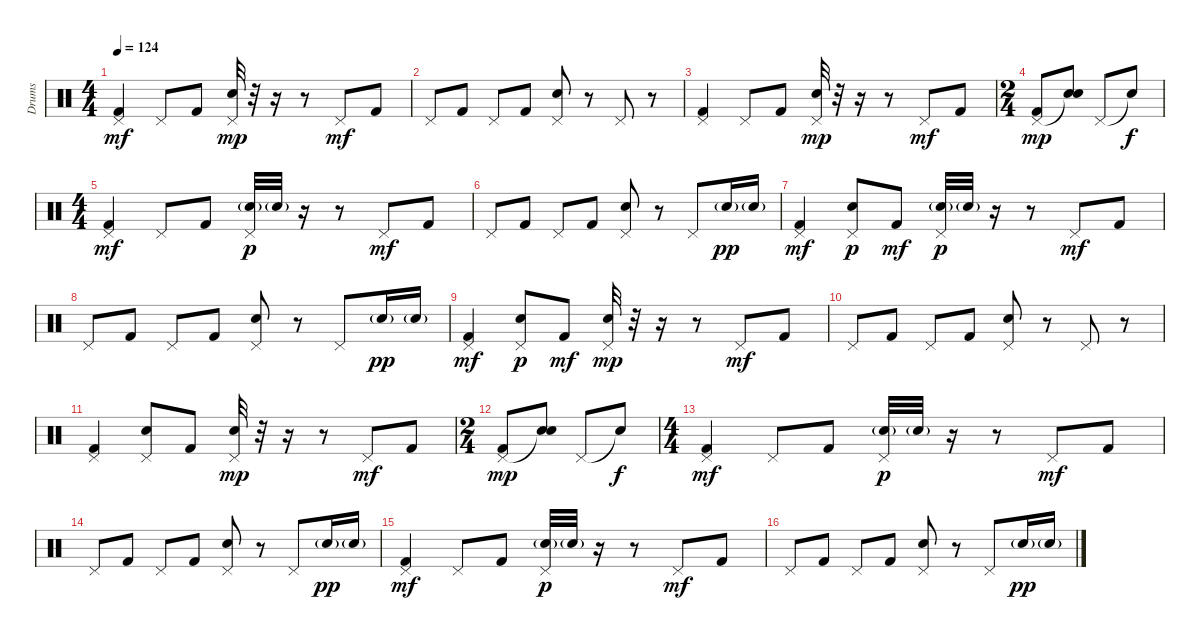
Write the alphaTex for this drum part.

\track ("Drums" "Drums") {instrument percussion}
\staff {score}
\articulation defaults
\ts (4 4)
\tempo 124
\clef neutral
\ks c
("Pedal Hi-Hat (hit)" "Kick (hit) 2").4{dy mf} "Pedal Hi-Hat (hit)".8 "Kick (hit) 2".8 ("Pedal Hi-Hat (hit)" "Electric Snare (hit)").32{dy mp} r.32 r.16 r.8 "Pedal Hi-Hat (hit)".8{dy mf} "Kick (hit) 2".8 |
"Pedal Hi-Hat (hit)".8 "Kick (hit) 2".8 "Pedal Hi-Hat (hit)".8 "Kick (hit) 2".8 ("Pedal Hi-Hat (hit)" "Electric Snare (hit)").8 r.8 "Pedal Hi-Hat (hit)".8 r.8 |
("Pedal Hi-Hat (hit)" "Kick (hit) 2").4 "Pedal Hi-Hat (hit)".8 "Kick (hit) 2".8 ("Pedal Hi-Hat (hit)" "Electric Snare (hit)").32{dy mp} r.32 r.16 r.8 "Pedal Hi-Hat (hit)".8{dy mf} "Kick (hit) 2".8 |
\ts (2 4)
("Pedal Hi-Hat (hit)" "Kick (hit) 2").8{dy mp} ("Snare (hit)"{t} "Electric Snare (hit)").8 "Pedal Hi-Hat (hit)".8 "Snare (hit)"{t}.8{dy f} |
\ts (4 4)
("Pedal Hi-Hat (hit)" "Kick (hit) 2").4{dy mf} "Pedal Hi-Hat (hit)".8 "Kick (hit) 2".8 ("Pedal Hi-Hat (hit)" "Electric Snare (hit)"{g}).32{dy p} "Electric Snare (hit)"{g}.32 r.16 r.8 "Pedal Hi-Hat (hit)".8{dy mf} "Kick (hit) 2".8 |
"Pedal Hi-Hat (hit)".8 "Kick (hit) 2".8 "Pedal Hi-Hat (hit)".8 "Kick (hit) 2".8 ("Pedal Hi-Hat (hit)" "Electric Snare (hit)").8 r.8 "Pedal Hi-Hat (hit)".8 "Electric Snare (hit)"{g}.16{dy pp} "Electric Snare (hit)"{g}.16 |
("Pedal Hi-Hat (hit)" "Kick (hit) 2").4{dy mf} ("Pedal Hi-Hat (hit)" "Electric Snare (hit)").8{dy p} "Kick (hit) 2".8{dy mf} ("Pedal Hi-Hat (hit)" "Electric Snare (hit)"{g}).32{dy p} "Electric Snare (hit)"{g}.32 r.16 r.8 "Pedal Hi-Hat (hit)".8{dy mf} "Kick (hit) 2".8 |
"Pedal Hi-Hat (hit)".8 "Kick (hit) 2".8 "Pedal Hi-Hat (hit)".8 "Kick (hit) 2".8 ("Pedal Hi-Hat (hit)" "Electric Snare (hit)").8 r.8 "Pedal Hi-Hat (hit)".8 "Electric Snare (hit)"{g}.16{dy pp} "Electric Snare (hit)"{g}.16 |
("Pedal Hi-Hat (hit)" "Kick (hit) 2").4{dy mf} ("Pedal Hi-Hat (hit)" "Electric Snare (hit)").8{dy p} "Kick (hit) 2".8{dy mf} ("Pedal Hi-Hat (hit)" "Electric Snare (hit)").32{dy mp} r.32 r.16 r.8 "Pedal Hi-Hat (hit)".8{dy mf} "Kick (hit) 2".8 |
"Pedal Hi-Hat (hit)".8 "Kick (hit) 2".8 "Pedal Hi-Hat (hit)".8 "Kick (hit) 2".8 ("Pedal Hi-Hat (hit)" "Electric Snare (hit)").8 r.8 "Pedal Hi-Hat (hit)".8 r.8 |
("Pedal Hi-Hat (hit)" "Kick (hit) 2").4 ("Pedal Hi-Hat (hit)" "Electric Snare (hit)").8 "Kick (hit) 2".8 ("Pedal Hi-Hat (hit)" "Electric Snare (hit)").32{dy mp} r.32 r.16 r.8 "Pedal Hi-Hat (hit)".8{dy mf} "Kick (hit) 2".8 |
\ts (2 4)
("Pedal Hi-Hat (hit)" "Kick (hit) 2").8{dy mp} ("Snare (hit)"{t} "Electric Snare (hit)").8 "Pedal Hi-Hat (hit)".8 "Snare (hit)"{t}.8{dy f} |
\ts (4 4)
("Pedal Hi-Hat (hit)" "Kick (hit) 2").4{dy mf} "Pedal Hi-Hat (hit)".8 "Kick (hit) 2".8 ("Pedal Hi-Hat (hit)" "Electric Snare (hit)"{g}).32{dy p} "Electric Snare (hit)"{g}.32 r.16 r.8 "Pedal Hi-Hat (hit)".8{dy mf} "Kick (hit) 2".8 |
"Pedal Hi-Hat (hit)".8 "Kick (hit) 2".8 "Pedal Hi-Hat (hit)".8 "Kick (hit) 2".8 ("Pedal Hi-Hat (hit)" "Electric Snare (hit)").8 r.8 "Pedal Hi-Hat (hit)".8 "Electric Snare (hit)"{g}.16{dy pp} "Electric Snare (hit)"{g}.16 |
("Pedal Hi-Hat (hit)" "Kick (hit) 2").4{dy mf} "Pedal Hi-Hat (hit)".8 "Kick (hit) 2".8 ("Pedal Hi-Hat (hit)" "Electric Snare (hit)"{g}).32{dy p} "Electric Snare (hit)"{g}.32 r.16 r.8 "Pedal Hi-Hat (hit)".8{dy mf} "Kick (hit) 2".8 |
"Pedal Hi-Hat (hit)".8 "Kick (hit) 2".8 "Pedal Hi-Hat (hit)".8 "Kick (hit) 2".8 ("Pedal Hi-Hat (hit)" "Electric Snare (hit)").8 r.8 "Pedal Hi-Hat (hit)".8 "Electric Snare (hit)"{g}.16{dy pp} "Electric Snare (hit)"{g}.16
